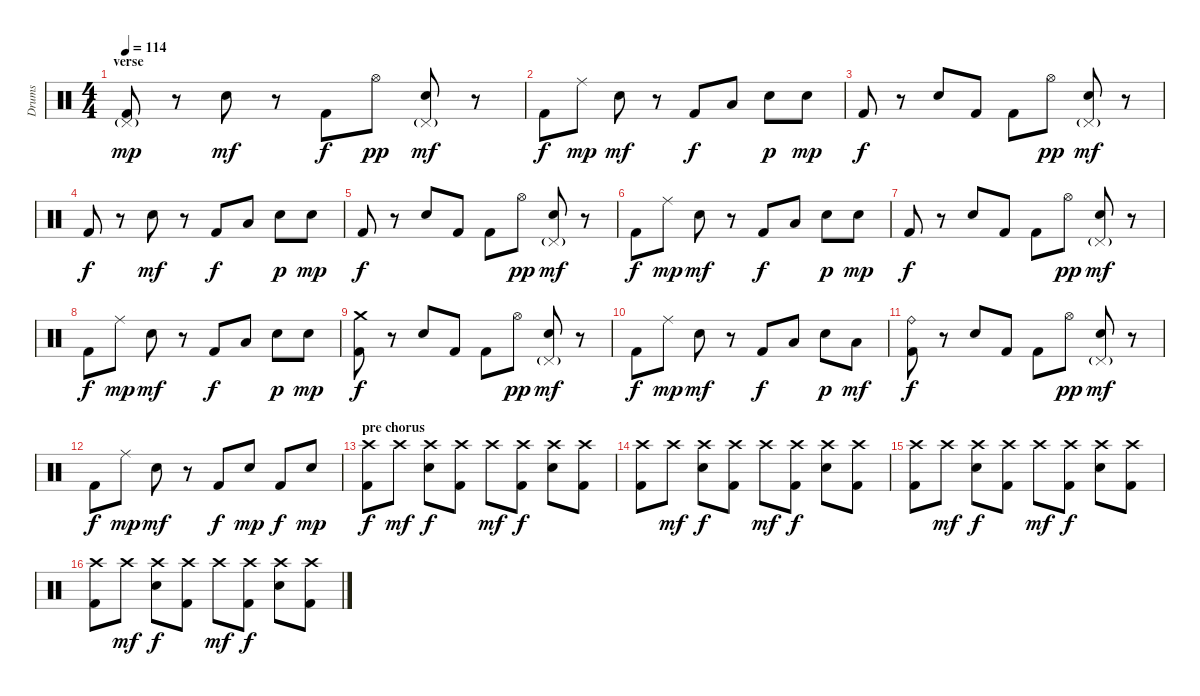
\track ("Drums" "Drums") {instrument percussion}
\staff {score}
\articulation defaults
\ts (4 4)
\section ("" "verse")
\tempo 114
\clef neutral
\ks c
("Pedal Hi-Hat (hit)"{g} "Kick (hit) 2").8{dy mp} r.8 "Snare (hit) 2".8{dy mf} r.8 "Kick (hit) 2".8{dy f} "Hi-Hat (open)".8{dy pp} ("Pedal Hi-Hat (hit)"{g} "Snare (hit) 2").8{dy mf} r.8 |
"Kick (hit) 2".8{dy f} "Ride (middle)".8{dy mp} "Snare (hit) 2".8{dy mf} r.8 "Kick (hit) 2".8{dy f} "Low Tom (hit)".8 "Snare (hit) 2".8{dy p} "Snare (hit) 2".8{dy mp} |
"Kick (hit) 2".8{dy f} r.8 "Snare (hit) 2".8 "Kick (hit) 2".8 "Kick (hit) 2".8 "Hi-Hat (open)".8{dy pp} ("Pedal Hi-Hat (hit)"{g} "Snare (hit) 2").8{dy mf} r.8 |
"Kick (hit) 2".8{dy f} r.8 "Snare (hit) 2".8{dy mf} r.8 "Kick (hit) 2".8{dy f} "Low Tom (hit)".8 "Snare (hit) 2".8{dy p} "Snare (hit) 2".8{dy mp} |
"Kick (hit) 2".8{dy f} r.8 "Snare (hit) 2".8 "Kick (hit) 2".8 "Kick (hit) 2".8 "Hi-Hat (open)".8{dy pp} ("Pedal Hi-Hat (hit)"{g} "Snare (hit) 2").8{dy mf} r.8 |
"Kick (hit) 2".8{dy f} "Ride (middle)".8{dy mp} "Snare (hit) 2".8{dy mf} r.8 "Kick (hit) 2".8{dy f} "Low Tom (hit)".8 "Snare (hit) 2".8{dy p} "Snare (hit) 2".8{dy mp} |
"Kick (hit) 2".8{dy f} r.8 "Snare (hit) 2".8 "Kick (hit) 2".8 "Kick (hit) 2".8 "Hi-Hat (open)".8{dy pp} ("Pedal Hi-Hat (hit)"{g} "Snare (hit) 2").8{dy mf} r.8 |
"Kick (hit) 2".8{dy f} "Ride (middle)".8{dy mp} "Snare (hit) 2".8{dy mf} r.8 "Kick (hit) 2".8{dy f} "Low Tom (hit)".8 "Snare (hit) 2".8{dy p} "Snare (hit) 2".8{dy mp} |
("Crash medium (hit)" "Kick (hit) 2").8{dy f} r.8 "Snare (hit) 2".8 "Kick (hit) 2".8 "Kick (hit) 2".8 "Hi-Hat (open)".8{dy pp} ("Pedal Hi-Hat (hit)"{g} "Snare (hit) 2").8{dy mf} r.8 |
"Kick (hit) 2".8{dy f} "Ride (middle)".8{dy mp} "Snare (hit) 2".8{dy mf} r.8 "Kick (hit) 2".8{dy f} "Low Tom (hit)".8 "Snare (hit) 2".8{dy p} "Low Tom (hit)".8{dy mf} |
("Ride (bell)" "Kick (hit) 2").8{dy f} r.8 "Snare (hit) 2".8 "Kick (hit) 2".8 "Kick (hit) 2".8 "Hi-Hat (open)".8{dy pp} ("Pedal Hi-Hat (hit)"{g} "Snare (hit) 2").8{dy mf} r.8 |
"Kick (hit) 2".8{dy f} "Ride (middle)".8{dy mp} "Snare (hit) 2".8{dy mf} r.8 "Kick (hit) 2".8{dy f} "Snare (hit) 2".8{dy mp} "Kick (hit) 2".8{dy f} "Snare (hit) 2".8{dy mp} |
\section ("" "pre chorus")
("Crash high (hit)" "Kick (hit) 2").8{dy f} "Crash high (hit)".8{dy mf} ("Crash high (hit)" "Snare (hit) 2").8{dy f} ("Crash high (hit)" "Kick (hit) 2").8 "Crash high (hit)".8{dy mf} ("Crash high (hit)" "Kick (hit) 2").8{dy f} ("Crash high (hit)" "Snare (hit) 2").8 ("Crash high (hit)" "Kick (hit) 2").8 |
("Crash high (hit)" "Kick (hit) 2").8 "Crash high (hit)".8{dy mf} ("Crash high (hit)" "Snare (hit) 2").8{dy f} ("Crash high (hit)" "Kick (hit) 2").8 "Crash high (hit)".8{dy mf} ("Crash high (hit)" "Kick (hit) 2").8{dy f} ("Crash high (hit)" "Snare (hit) 2").8 ("Crash high (hit)" "Kick (hit) 2").8 |
("Crash high (hit)" "Kick (hit) 2").8 "Crash high (hit)".8{dy mf} ("Crash high (hit)" "Snare (hit) 2").8{dy f} ("Crash high (hit)" "Kick (hit) 2").8 "Crash high (hit)".8{dy mf} ("Crash high (hit)" "Kick (hit) 2").8{dy f} ("Crash high (hit)" "Snare (hit) 2").8 ("Crash high (hit)" "Kick (hit) 2").8 |
("Crash high (hit)" "Kick (hit) 2").8 "Crash high (hit)".8{dy mf} ("Crash high (hit)" "Snare (hit) 2").8{dy f} ("Crash high (hit)" "Kick (hit) 2").8 "Crash high (hit)".8{dy mf} ("Crash high (hit)" "Kick (hit) 2").8{dy f} ("Crash high (hit)" "Snare (hit) 2").8 ("Crash high (hit)" "Kick (hit) 2").8
